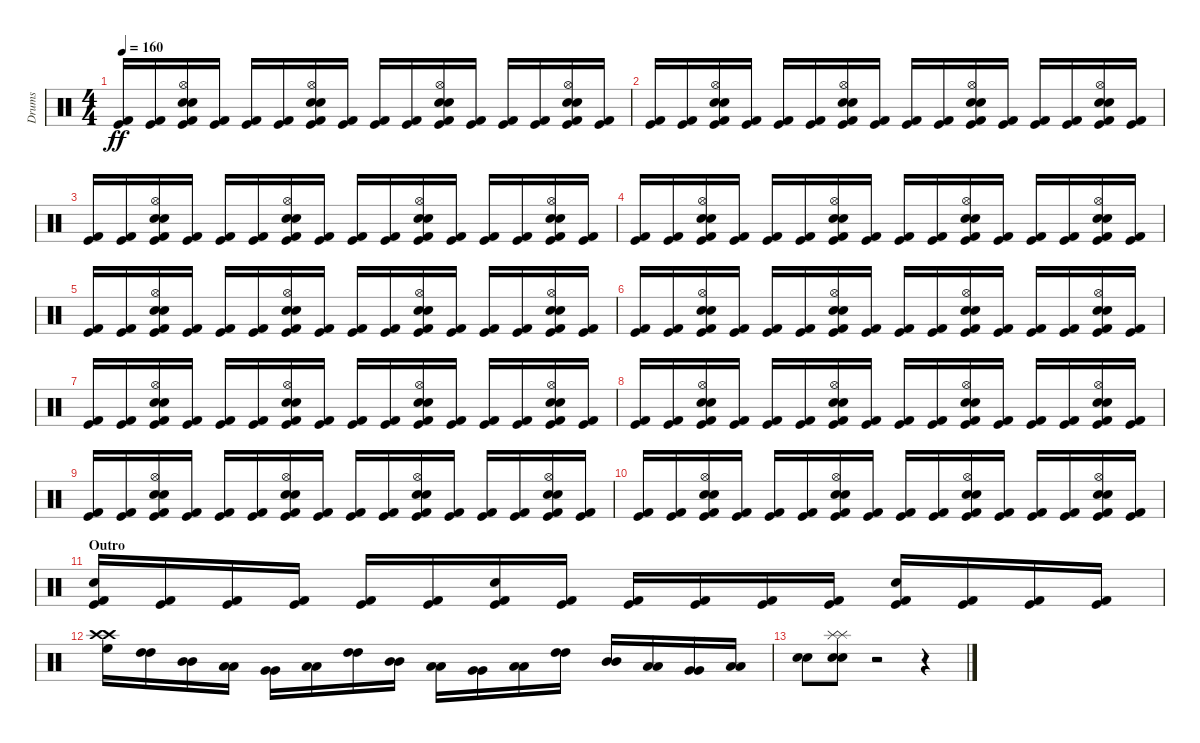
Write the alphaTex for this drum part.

\track ("Drums" "Drums") {instrument percussion}
\staff {score}
\articulation defaults
\ts (4 4)
\tempo 160
\clef neutral
\ks c
("Kick (hit) 2" "Kick (hit)").16{dy ff} ("Kick (hit) 2" "Kick (hit)").16 ("Kick (hit) 2" "Kick (hit)" "Hi-Hat (open)" "Snare (hit) 2" "Electric Snare (hit)").16 ("Kick (hit) 2" "Kick (hit)").16 ("Kick (hit) 2" "Kick (hit)").16 ("Kick (hit) 2" "Kick (hit)").16 ("Kick (hit) 2" "Kick (hit)" "Hi-Hat (open)" "Snare (hit) 2" "Electric Snare (hit)").16 ("Kick (hit) 2" "Kick (hit)").16 ("Kick (hit) 2" "Kick (hit)").16 ("Kick (hit) 2" "Kick (hit)").16 ("Kick (hit) 2" "Kick (hit)" "Hi-Hat (open)" "Snare (hit) 2" "Electric Snare (hit)").16 ("Kick (hit) 2" "Kick (hit)").16 ("Kick (hit) 2" "Kick (hit)").16 ("Kick (hit) 2" "Kick (hit)").16 ("Kick (hit) 2" "Kick (hit)" "Hi-Hat (open)" "Snare (hit) 2" "Electric Snare (hit)").16 ("Kick (hit) 2" "Kick (hit)").16 |
("Kick (hit) 2" "Kick (hit)").16 ("Kick (hit) 2" "Kick (hit)").16 ("Kick (hit) 2" "Kick (hit)" "Hi-Hat (open)" "Snare (hit) 2" "Electric Snare (hit)").16 ("Kick (hit) 2" "Kick (hit)").16 ("Kick (hit) 2" "Kick (hit)").16 ("Kick (hit) 2" "Kick (hit)").16 ("Kick (hit) 2" "Kick (hit)" "Hi-Hat (open)" "Snare (hit) 2" "Electric Snare (hit)").16 ("Kick (hit) 2" "Kick (hit)").16 ("Kick (hit) 2" "Kick (hit)").16 ("Kick (hit) 2" "Kick (hit)").16 ("Kick (hit) 2" "Kick (hit)" "Hi-Hat (open)" "Snare (hit) 2" "Electric Snare (hit)").16 ("Kick (hit) 2" "Kick (hit)").16 ("Kick (hit) 2" "Kick (hit)").16 ("Kick (hit) 2" "Kick (hit)").16 ("Kick (hit) 2" "Kick (hit)" "Hi-Hat (open)" "Snare (hit) 2" "Electric Snare (hit)").16 ("Kick (hit) 2" "Kick (hit)").16 |
("Kick (hit) 2" "Kick (hit)").16 ("Kick (hit) 2" "Kick (hit)").16 ("Kick (hit) 2" "Kick (hit)" "Hi-Hat (open)" "Snare (hit) 2" "Electric Snare (hit)").16 ("Kick (hit) 2" "Kick (hit)").16 ("Kick (hit) 2" "Kick (hit)").16 ("Kick (hit) 2" "Kick (hit)").16 ("Kick (hit) 2" "Kick (hit)" "Hi-Hat (open)" "Snare (hit) 2" "Electric Snare (hit)").16 ("Kick (hit) 2" "Kick (hit)").16 ("Kick (hit) 2" "Kick (hit)").16 ("Kick (hit) 2" "Kick (hit)").16 ("Kick (hit) 2" "Kick (hit)" "Hi-Hat (open)" "Snare (hit) 2" "Electric Snare (hit)").16 ("Kick (hit) 2" "Kick (hit)").16 ("Kick (hit) 2" "Kick (hit)").16 ("Kick (hit) 2" "Kick (hit)").16 ("Kick (hit) 2" "Kick (hit)" "Hi-Hat (open)" "Snare (hit) 2" "Electric Snare (hit)").16 ("Kick (hit) 2" "Kick (hit)").16 |
("Kick (hit) 2" "Kick (hit)").16 ("Kick (hit) 2" "Kick (hit)").16 ("Kick (hit) 2" "Kick (hit)" "Hi-Hat (open)" "Snare (hit) 2" "Electric Snare (hit)").16 ("Kick (hit) 2" "Kick (hit)").16 ("Kick (hit) 2" "Kick (hit)").16 ("Kick (hit) 2" "Kick (hit)").16 ("Kick (hit) 2" "Kick (hit)" "Hi-Hat (open)" "Snare (hit) 2" "Electric Snare (hit)").16 ("Kick (hit) 2" "Kick (hit)").16 ("Kick (hit) 2" "Kick (hit)").16 ("Kick (hit) 2" "Kick (hit)").16 ("Kick (hit) 2" "Kick (hit)" "Hi-Hat (open)" "Snare (hit) 2" "Electric Snare (hit)").16 ("Kick (hit) 2" "Kick (hit)").16 ("Kick (hit) 2" "Kick (hit)").16 ("Kick (hit) 2" "Kick (hit)").16 ("Kick (hit) 2" "Kick (hit)" "Hi-Hat (open)" "Snare (hit) 2" "Electric Snare (hit)").16 ("Kick (hit) 2" "Kick (hit)").16 |
("Kick (hit) 2" "Kick (hit)").16 ("Kick (hit) 2" "Kick (hit)").16 ("Kick (hit) 2" "Kick (hit)" "Hi-Hat (open)" "Snare (hit) 2" "Electric Snare (hit)").16 ("Kick (hit) 2" "Kick (hit)").16 ("Kick (hit) 2" "Kick (hit)").16 ("Kick (hit) 2" "Kick (hit)").16 ("Kick (hit) 2" "Kick (hit)" "Hi-Hat (open)" "Snare (hit) 2" "Electric Snare (hit)").16 ("Kick (hit) 2" "Kick (hit)").16 ("Kick (hit) 2" "Kick (hit)").16 ("Kick (hit) 2" "Kick (hit)").16 ("Kick (hit) 2" "Kick (hit)" "Hi-Hat (open)" "Snare (hit) 2" "Electric Snare (hit)").16 ("Kick (hit) 2" "Kick (hit)").16 ("Kick (hit) 2" "Kick (hit)").16 ("Kick (hit) 2" "Kick (hit)").16 ("Kick (hit) 2" "Kick (hit)" "Hi-Hat (open)" "Snare (hit) 2" "Electric Snare (hit)").16 ("Kick (hit) 2" "Kick (hit)").16 |
("Kick (hit) 2" "Kick (hit)").16 ("Kick (hit) 2" "Kick (hit)").16 ("Kick (hit) 2" "Kick (hit)" "Hi-Hat (open)" "Snare (hit) 2" "Electric Snare (hit)").16 ("Kick (hit) 2" "Kick (hit)").16 ("Kick (hit) 2" "Kick (hit)").16 ("Kick (hit) 2" "Kick (hit)").16 ("Kick (hit) 2" "Kick (hit)" "Hi-Hat (open)" "Snare (hit) 2" "Electric Snare (hit)").16 ("Kick (hit) 2" "Kick (hit)").16 ("Kick (hit) 2" "Kick (hit)").16 ("Kick (hit) 2" "Kick (hit)").16 ("Kick (hit) 2" "Kick (hit)" "Hi-Hat (open)" "Snare (hit) 2" "Electric Snare (hit)").16 ("Kick (hit) 2" "Kick (hit)").16 ("Kick (hit) 2" "Kick (hit)").16 ("Kick (hit) 2" "Kick (hit)").16 ("Kick (hit) 2" "Kick (hit)" "Hi-Hat (open)" "Snare (hit) 2" "Electric Snare (hit)").16 ("Kick (hit) 2" "Kick (hit)").16 |
("Kick (hit) 2" "Kick (hit)").16 ("Kick (hit) 2" "Kick (hit)").16 ("Kick (hit) 2" "Kick (hit)" "Hi-Hat (open)" "Snare (hit) 2" "Electric Snare (hit)").16 ("Kick (hit) 2" "Kick (hit)").16 ("Kick (hit) 2" "Kick (hit)").16 ("Kick (hit) 2" "Kick (hit)").16 ("Kick (hit) 2" "Kick (hit)" "Hi-Hat (open)" "Snare (hit) 2" "Electric Snare (hit)").16 ("Kick (hit) 2" "Kick (hit)").16 ("Kick (hit) 2" "Kick (hit)").16 ("Kick (hit) 2" "Kick (hit)").16 ("Kick (hit) 2" "Kick (hit)" "Hi-Hat (open)" "Snare (hit) 2" "Electric Snare (hit)").16 ("Kick (hit) 2" "Kick (hit)").16 ("Kick (hit) 2" "Kick (hit)").16 ("Kick (hit) 2" "Kick (hit)").16 ("Kick (hit) 2" "Kick (hit)" "Hi-Hat (open)" "Snare (hit) 2" "Electric Snare (hit)").16 ("Kick (hit) 2" "Kick (hit)").16 |
("Kick (hit) 2" "Kick (hit)").16 ("Kick (hit) 2" "Kick (hit)").16 ("Kick (hit) 2" "Kick (hit)" "Hi-Hat (open)" "Snare (hit) 2" "Electric Snare (hit)").16 ("Kick (hit) 2" "Kick (hit)").16 ("Kick (hit) 2" "Kick (hit)").16 ("Kick (hit) 2" "Kick (hit)").16 ("Kick (hit) 2" "Kick (hit)" "Hi-Hat (open)" "Snare (hit) 2" "Electric Snare (hit)").16 ("Kick (hit) 2" "Kick (hit)").16 ("Kick (hit) 2" "Kick (hit)").16 ("Kick (hit) 2" "Kick (hit)").16 ("Kick (hit) 2" "Kick (hit)" "Hi-Hat (open)" "Snare (hit) 2" "Electric Snare (hit)").16 ("Kick (hit) 2" "Kick (hit)").16 ("Kick (hit) 2" "Kick (hit)").16 ("Kick (hit) 2" "Kick (hit)").16 ("Kick (hit) 2" "Kick (hit)" "Hi-Hat (open)" "Snare (hit) 2" "Electric Snare (hit)").16 ("Kick (hit) 2" "Kick (hit)").16 |
("Kick (hit) 2" "Kick (hit)").16 ("Kick (hit) 2" "Kick (hit)").16 ("Kick (hit) 2" "Kick (hit)" "Hi-Hat (open)" "Snare (hit) 2" "Electric Snare (hit)").16 ("Kick (hit) 2" "Kick (hit)").16 ("Kick (hit) 2" "Kick (hit)").16 ("Kick (hit) 2" "Kick (hit)").16 ("Kick (hit) 2" "Kick (hit)" "Hi-Hat (open)" "Snare (hit) 2" "Electric Snare (hit)").16 ("Kick (hit) 2" "Kick (hit)").16 ("Kick (hit) 2" "Kick (hit)").16 ("Kick (hit) 2" "Kick (hit)").16 ("Kick (hit) 2" "Kick (hit)" "Hi-Hat (open)" "Snare (hit) 2" "Electric Snare (hit)").16 ("Kick (hit) 2" "Kick (hit)").16 ("Kick (hit) 2" "Kick (hit)").16 ("Kick (hit) 2" "Kick (hit)").16 ("Kick (hit) 2" "Kick (hit)" "Hi-Hat (open)" "Snare (hit) 2" "Electric Snare (hit)").16 ("Kick (hit) 2" "Kick (hit)").16 |
("Kick (hit) 2" "Kick (hit)").16 ("Kick (hit) 2" "Kick (hit)").16 ("Kick (hit) 2" "Kick (hit)" "Hi-Hat (open)" "Snare (hit) 2" "Electric Snare (hit)").16 ("Kick (hit) 2" "Kick (hit)").16 ("Kick (hit) 2" "Kick (hit)").16 ("Kick (hit) 2" "Kick (hit)").16 ("Kick (hit) 2" "Kick (hit)" "Hi-Hat (open)" "Snare (hit) 2" "Electric Snare (hit)").16 ("Kick (hit) 2" "Kick (hit)").16 ("Kick (hit) 2" "Kick (hit)").16 ("Kick (hit) 2" "Kick (hit)").16 ("Kick (hit) 2" "Kick (hit)" "Hi-Hat (open)" "Snare (hit) 2" "Electric Snare (hit)").16 ("Kick (hit) 2" "Kick (hit)").16 ("Kick (hit) 2" "Kick (hit)").16 ("Kick (hit) 2" "Kick (hit)").16 ("Kick (hit) 2" "Kick (hit)" "Hi-Hat (open)" "Snare (hit) 2" "Electric Snare (hit)").16 ("Kick (hit) 2" "Kick (hit)").16 |
\section ("" "Outro")
("Kick (hit) 2" "Kick (hit)" "Snare (hit) 2").16 ("Kick (hit) 2" "Kick (hit)").16 ("Kick (hit) 2" "Kick (hit)").16 ("Kick (hit) 2" "Kick (hit)").16 ("Kick (hit) 2" "Kick (hit)").16 ("Kick (hit) 2" "Kick (hit)").16 ("Kick (hit) 2" "Kick (hit)" "Snare (hit) 2").16 ("Kick (hit) 2" "Kick (hit)").16 ("Kick (hit) 2" "Kick (hit)").16 ("Kick (hit) 2" "Kick (hit)").16 ("Kick (hit) 2" "Kick (hit)").16 ("Kick (hit) 2" "Kick (hit)").16 ("Kick (hit) 2" "Kick (hit)" "Snare (hit) 2").16 ("Kick (hit) 2" "Kick (hit)").16 ("Kick (hit) 2" "Kick (hit)").16 ("Kick (hit) 2" "Kick (hit)").16 |
("Crash high (hit)" "Crash high (hit)" "High Floor Tom (hit)").16 ("High Tom (hit)" "High Tom (hit)").16 ("Mid Tom (hit)" "Mid Tom (hit)").16 ("Low Tom (hit)" "Low Tom (hit)").16 ("Very Low Tom (hit)" "Very Low Tom (hit)").16 ("Low Floor Tom (hit)" "Low Floor Tom (hit)").16 ("High Tom (hit)" "High Tom (hit)").16 ("Mid Tom (hit)" "Mid Tom (hit)").16 ("Low Tom (hit)" "Low Tom (hit)").16 ("Very Low Tom (hit)" "Very Low Tom (hit)").16 ("Low Floor Tom (hit)" "Low Floor Tom (hit)").16 ("High Tom (hit)" "High Tom (hit)").16 ("Mid Tom (hit)" "Mid Tom (hit)").16 ("Low Tom (hit)" "Low Tom (hit)").16 ("Very Low Tom (hit)" "Very Low Tom (hit)").16 ("Low Floor Tom (hit)" "Low Floor Tom (hit)").16 |
("Snare (hit) 2" "Snare (hit) 2").8 ("Snare (hit) 2" "Snare (hit) 2" "Splash (hit)" "Splash (hit)").8 r.2 r.4
